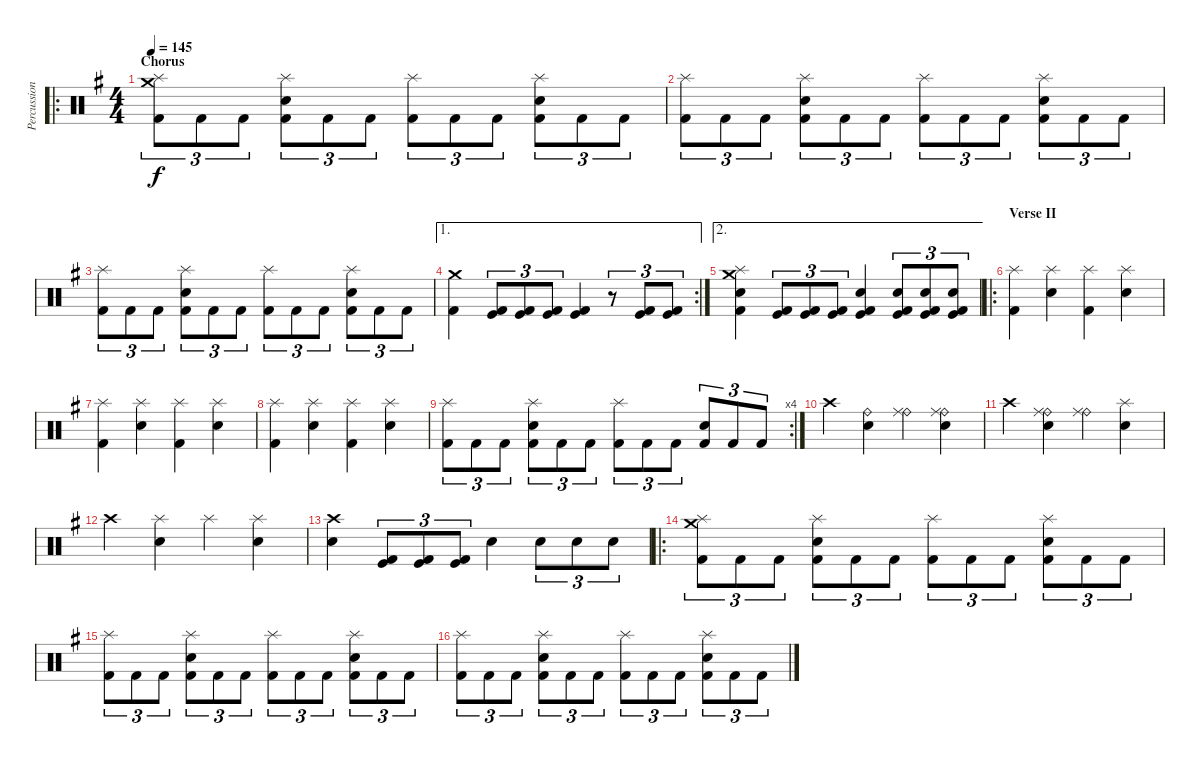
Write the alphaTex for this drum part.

\track ("Percussion" "Percussion") {instrument percussion}
\staff {score}
\articulation defaults
\ro
\ts (4 4)
\section ("" "Chorus")
\tempo 145
\clef neutral
\ks eminor
("Crash medium (hit)" "Splash (hit)" "Kick (hit) 2").8{tu (3 2) dy f} "Kick (hit) 2".8{tu (3 2)} "Kick (hit) 2".8{tu (3 2)} ("Electric Snare (hit)" "Splash (hit)" "Kick (hit) 2").8{tu (3 2)} "Kick (hit) 2".8{tu (3 2)} "Kick (hit) 2".8{tu (3 2)} ("Splash (hit)" "Kick (hit) 2").8{tu (3 2)} "Kick (hit) 2".8{tu (3 2)} "Kick (hit) 2".8{tu (3 2)} ("Electric Snare (hit)" "Splash (hit)" "Kick (hit) 2").8{tu (3 2)} "Kick (hit) 2".8{tu (3 2)} "Kick (hit) 2".8{tu (3 2)} |
("Splash (hit)" "Kick (hit) 2").8{tu (3 2)} "Kick (hit) 2".8{tu (3 2)} "Kick (hit) 2".8{tu (3 2)} ("Electric Snare (hit)" "Splash (hit)" "Kick (hit) 2").8{tu (3 2)} "Kick (hit) 2".8{tu (3 2)} "Kick (hit) 2".8{tu (3 2)} ("Splash (hit)" "Kick (hit) 2").8{tu (3 2)} "Kick (hit) 2".8{tu (3 2)} "Kick (hit) 2".8{tu (3 2)} ("Electric Snare (hit)" "Splash (hit)" "Kick (hit) 2").8{tu (3 2)} "Kick (hit) 2".8{tu (3 2)} "Kick (hit) 2".8{tu (3 2)} |
("Splash (hit)" "Kick (hit) 2").8{tu (3 2)} "Kick (hit) 2".8{tu (3 2)} "Kick (hit) 2".8{tu (3 2)} ("Electric Snare (hit)" "Splash (hit)" "Kick (hit) 2").8{tu (3 2)} "Kick (hit) 2".8{tu (3 2)} "Kick (hit) 2".8{tu (3 2)} ("Splash (hit)" "Kick (hit) 2").8{tu (3 2)} "Kick (hit) 2".8{tu (3 2)} "Kick (hit) 2".8{tu (3 2)} ("Electric Snare (hit)" "Splash (hit)" "Kick (hit) 2").8{tu (3 2)} "Kick (hit) 2".8{tu (3 2)} "Kick (hit) 2".8{tu (3 2)} |
\ae 1
\rc 2
("Crash medium (hit)" "Kick (hit) 2").4 ("Kick (hit)" "Kick (hit) 2").8{tu (3 2)} ("Kick (hit)" "Kick (hit) 2").8{tu (3 2)} ("Kick (hit)" "Kick (hit) 2").8{tu (3 2)} ("Kick (hit)" "Kick (hit) 2").4 r.8{tu (3 2)} ("Kick (hit)" "Kick (hit) 2").8{tu (3 2)} ("Kick (hit)" "Kick (hit) 2").8{tu (3 2)} |
\ae 2
("Crash medium (hit)" "Splash (hit)" "Electric Snare (hit)" "Kick (hit) 2").4 ("Kick (hit)" "Kick (hit) 2").8{tu (3 2)} ("Kick (hit)" "Kick (hit) 2").8{tu (3 2)} ("Kick (hit)" "Kick (hit) 2").8{tu (3 2)} ("Electric Snare (hit)" "Kick (hit)" "Kick (hit) 2").4 ("Electric Snare (hit)" "Kick (hit)" "Kick (hit) 2").8{tu (3 2)} ("Electric Snare (hit)" "Kick (hit)" "Kick (hit) 2").8{tu (3 2)} ("Electric Snare (hit)" "Kick (hit)" "Kick (hit) 2").8{tu (3 2)} |
\ro
\section ("" "Verse II")
("Splash (hit)" "Kick (hit) 2").4 ("Electric Snare (hit)" "Splash (hit)").4 ("Splash (hit)" "Kick (hit) 2").4 ("Electric Snare (hit)" "Splash (hit)").4 |
("Splash (hit)" "Kick (hit) 2").4 ("Electric Snare (hit)" "Splash (hit)").4 ("Splash (hit)" "Kick (hit) 2").4 ("Electric Snare (hit)" "Splash (hit)").4 |
("Splash (hit)" "Kick (hit) 2").4 ("Electric Snare (hit)" "Splash (hit)").4 ("Splash (hit)" "Kick (hit) 2").4 ("Electric Snare (hit)" "Splash (hit)").4 |
\rc 4
("Splash (hit)" "Kick (hit) 2").8{tu (3 2)} "Kick (hit) 2".8{tu (3 2)} "Kick (hit) 2".8{tu (3 2)} ("Electric Snare (hit)" "Splash (hit)" "Kick (hit) 2").8{tu (3 2)} "Kick (hit) 2".8{tu (3 2)} "Kick (hit) 2".8{tu (3 2)} ("Splash (hit)" "Kick (hit) 2").8{tu (3 2)} "Kick (hit) 2".8{tu (3 2)} "Kick (hit) 2".8{tu (3 2)} ("Electric Snare (hit)" "Kick (hit) 2").8{tu (3 2)} "Kick (hit) 2".8{tu (3 2)} "Kick (hit) 2".8{tu (3 2)} |
"Crash high (hit)".4 ("Ride (bell)" "Electric Snare (hit)").4 ("Ride (bell)" "Ride (middle)").4 ("Ride (bell)" "Ride (middle)" "Electric Snare (hit)").4 |
"Crash high (hit)".4 ("Ride (bell)" "Ride (middle)" "Electric Snare (hit)").4 ("Ride (bell)" "Ride (middle)").4 ("Splash (hit)" "Electric Snare (hit)").4 |
"Crash high (hit)".4 ("Splash (hit)" "Electric Snare (hit)").4 "Splash (hit)".4 ("Splash (hit)" "Electric Snare (hit)").4 |
("Crash high (hit)" "Electric Snare (hit)").4 ("Kick (hit)" "Kick (hit) 2").8{tu (3 2)} ("Kick (hit)" "Kick (hit) 2").8{tu (3 2)} ("Kick (hit)" "Kick (hit) 2").8{tu (3 2)} "Electric Snare (hit)".4 "Electric Snare (hit)".8{tu (3 2)} "Electric Snare (hit)".8{tu (3 2)} "Electric Snare (hit)".8{tu (3 2)} |
\ro
("Crash medium (hit)" "Splash (hit)" "Kick (hit) 2").8{tu (3 2)} "Kick (hit) 2".8{tu (3 2)} "Kick (hit) 2".8{tu (3 2)} ("Electric Snare (hit)" "Splash (hit)" "Kick (hit) 2").8{tu (3 2)} "Kick (hit) 2".8{tu (3 2)} "Kick (hit) 2".8{tu (3 2)} ("Splash (hit)" "Kick (hit) 2").8{tu (3 2)} "Kick (hit) 2".8{tu (3 2)} "Kick (hit) 2".8{tu (3 2)} ("Electric Snare (hit)" "Splash (hit)" "Kick (hit) 2").8{tu (3 2)} "Kick (hit) 2".8{tu (3 2)} "Kick (hit) 2".8{tu (3 2)} |
("Splash (hit)" "Kick (hit) 2").8{tu (3 2)} "Kick (hit) 2".8{tu (3 2)} "Kick (hit) 2".8{tu (3 2)} ("Electric Snare (hit)" "Splash (hit)" "Kick (hit) 2").8{tu (3 2)} "Kick (hit) 2".8{tu (3 2)} "Kick (hit) 2".8{tu (3 2)} ("Splash (hit)" "Kick (hit) 2").8{tu (3 2)} "Kick (hit) 2".8{tu (3 2)} "Kick (hit) 2".8{tu (3 2)} ("Electric Snare (hit)" "Splash (hit)" "Kick (hit) 2").8{tu (3 2)} "Kick (hit) 2".8{tu (3 2)} "Kick (hit) 2".8{tu (3 2)} |
("Splash (hit)" "Kick (hit) 2").8{tu (3 2)} "Kick (hit) 2".8{tu (3 2)} "Kick (hit) 2".8{tu (3 2)} ("Electric Snare (hit)" "Splash (hit)" "Kick (hit) 2").8{tu (3 2)} "Kick (hit) 2".8{tu (3 2)} "Kick (hit) 2".8{tu (3 2)} ("Splash (hit)" "Kick (hit) 2").8{tu (3 2)} "Kick (hit) 2".8{tu (3 2)} "Kick (hit) 2".8{tu (3 2)} ("Electric Snare (hit)" "Splash (hit)" "Kick (hit) 2").8{tu (3 2)} "Kick (hit) 2".8{tu (3 2)} "Kick (hit) 2".8{tu (3 2)}
